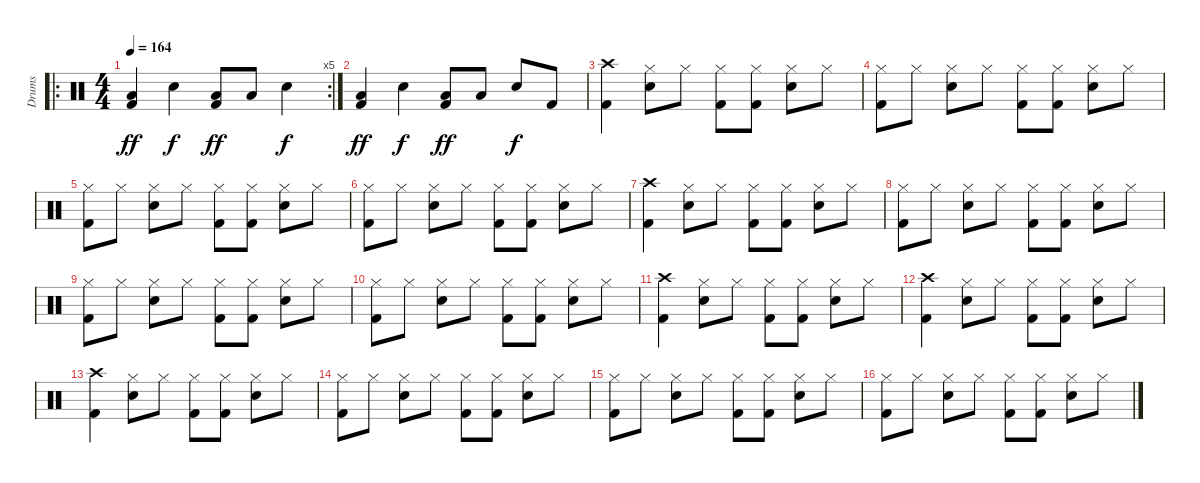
\track ("Drums" "Drums") {instrument percussion}
\staff {score}
\articulation defaults
\ro
\rc 5
\ts (4 4)
\tempo 164
\clef neutral
\ks c
("Low Floor Tom (hit)" "Kick (hit) 2").4{dy ff} "Snare (hit) 2".4{dy f} ("Low Floor Tom (hit)" "Kick (hit) 2").8{dy ff} "Low Floor Tom (hit)".8 "Snare (hit) 2".4{dy f} |
("Low Floor Tom (hit)" "Kick (hit) 2").4{dy ff} "Snare (hit) 2".4{dy f} ("Low Floor Tom (hit)" "Kick (hit) 2").8{dy ff} "Low Floor Tom (hit)".8 "Snare (hit) 2".8{dy f} "Kick (hit) 2".8 |
("Crash high (hit)" "Kick (hit) 2").4 ("Hi-Hat (closed)" "Snare (hit) 2").8 "Hi-Hat (closed)".8 ("Hi-Hat (closed)" "Kick (hit) 2").8 ("Hi-Hat (closed)" "Kick (hit) 2").8 ("Hi-Hat (closed)" "Snare (hit) 2").8 "Hi-Hat (closed)".8 |
("Hi-Hat (closed)" "Kick (hit) 2").8 "Hi-Hat (closed)".8 ("Hi-Hat (closed)" "Snare (hit) 2").8 "Hi-Hat (closed)".8 ("Hi-Hat (closed)" "Kick (hit) 2").8 ("Hi-Hat (closed)" "Kick (hit) 2").8 ("Hi-Hat (closed)" "Snare (hit) 2").8 "Hi-Hat (closed)".8 |
("Hi-Hat (closed)" "Kick (hit) 2").8 "Hi-Hat (closed)".8 ("Hi-Hat (closed)" "Snare (hit) 2").8 "Hi-Hat (closed)".8 ("Hi-Hat (closed)" "Kick (hit) 2").8 ("Hi-Hat (closed)" "Kick (hit) 2").8 ("Hi-Hat (closed)" "Snare (hit) 2").8 "Hi-Hat (closed)".8 |
("Hi-Hat (closed)" "Kick (hit) 2").8 "Hi-Hat (closed)".8 ("Hi-Hat (closed)" "Snare (hit) 2").8 "Hi-Hat (closed)".8 ("Hi-Hat (closed)" "Kick (hit) 2").8 ("Hi-Hat (closed)" "Kick (hit) 2").8 ("Hi-Hat (closed)" "Snare (hit) 2").8 "Hi-Hat (closed)".8 |
("Crash high (hit)" "Kick (hit) 2").4 ("Hi-Hat (closed)" "Snare (hit) 2").8 "Hi-Hat (closed)".8 ("Hi-Hat (closed)" "Kick (hit) 2").8 ("Hi-Hat (closed)" "Kick (hit) 2").8 ("Hi-Hat (closed)" "Snare (hit) 2").8 "Hi-Hat (closed)".8 |
("Hi-Hat (closed)" "Kick (hit) 2").8 "Hi-Hat (closed)".8 ("Hi-Hat (closed)" "Snare (hit) 2").8 "Hi-Hat (closed)".8 ("Hi-Hat (closed)" "Kick (hit) 2").8 ("Hi-Hat (closed)" "Kick (hit) 2").8 ("Hi-Hat (closed)" "Snare (hit) 2").8 "Hi-Hat (closed)".8 |
("Hi-Hat (closed)" "Kick (hit) 2").8 "Hi-Hat (closed)".8 ("Hi-Hat (closed)" "Snare (hit) 2").8 "Hi-Hat (closed)".8 ("Hi-Hat (closed)" "Kick (hit) 2").8 ("Hi-Hat (closed)" "Kick (hit) 2").8 ("Hi-Hat (closed)" "Snare (hit) 2").8 "Hi-Hat (closed)".8 |
("Hi-Hat (closed)" "Kick (hit) 2").8 "Hi-Hat (closed)".8 ("Hi-Hat (closed)" "Snare (hit) 2").8 "Hi-Hat (closed)".8 ("Hi-Hat (closed)" "Kick (hit) 2").8 ("Hi-Hat (closed)" "Kick (hit) 2").8 ("Hi-Hat (closed)" "Snare (hit) 2").8 "Hi-Hat (closed)".8 |
("Crash high (hit)" "Kick (hit) 2").4 ("Hi-Hat (closed)" "Snare (hit) 2").8 "Hi-Hat (closed)".8 ("Hi-Hat (closed)" "Kick (hit) 2").8 ("Hi-Hat (closed)" "Kick (hit) 2").8 ("Hi-Hat (closed)" "Snare (hit) 2").8 "Hi-Hat (closed)".8 |
("Crash high (hit)" "Kick (hit) 2").4 ("Hi-Hat (closed)" "Snare (hit) 2").8 "Hi-Hat (closed)".8 ("Hi-Hat (closed)" "Kick (hit) 2").8 ("Hi-Hat (closed)" "Kick (hit) 2").8 ("Hi-Hat (closed)" "Snare (hit) 2").8 "Hi-Hat (closed)".8 |
("Crash high (hit)" "Kick (hit) 2").4 ("Hi-Hat (closed)" "Snare (hit) 2").8 "Hi-Hat (closed)".8 ("Hi-Hat (closed)" "Kick (hit) 2").8 ("Hi-Hat (closed)" "Kick (hit) 2").8 ("Hi-Hat (closed)" "Snare (hit) 2").8 "Hi-Hat (closed)".8 |
("Hi-Hat (closed)" "Kick (hit) 2").8 "Hi-Hat (closed)".8 ("Hi-Hat (closed)" "Snare (hit) 2").8 "Hi-Hat (closed)".8 ("Hi-Hat (closed)" "Kick (hit) 2").8 ("Hi-Hat (closed)" "Kick (hit) 2").8 ("Hi-Hat (closed)" "Snare (hit) 2").8 "Hi-Hat (closed)".8 |
("Hi-Hat (closed)" "Kick (hit) 2").8 "Hi-Hat (closed)".8 ("Hi-Hat (closed)" "Snare (hit) 2").8 "Hi-Hat (closed)".8 ("Hi-Hat (closed)" "Kick (hit) 2").8 ("Hi-Hat (closed)" "Kick (hit) 2").8 ("Hi-Hat (closed)" "Snare (hit) 2").8 "Hi-Hat (closed)".8 |
("Hi-Hat (closed)" "Kick (hit) 2").8 "Hi-Hat (closed)".8 ("Hi-Hat (closed)" "Snare (hit) 2").8 "Hi-Hat (closed)".8 ("Hi-Hat (closed)" "Kick (hit) 2").8 ("Hi-Hat (closed)" "Kick (hit) 2").8 ("Hi-Hat (closed)" "Snare (hit) 2").8 "Hi-Hat (closed)".8
